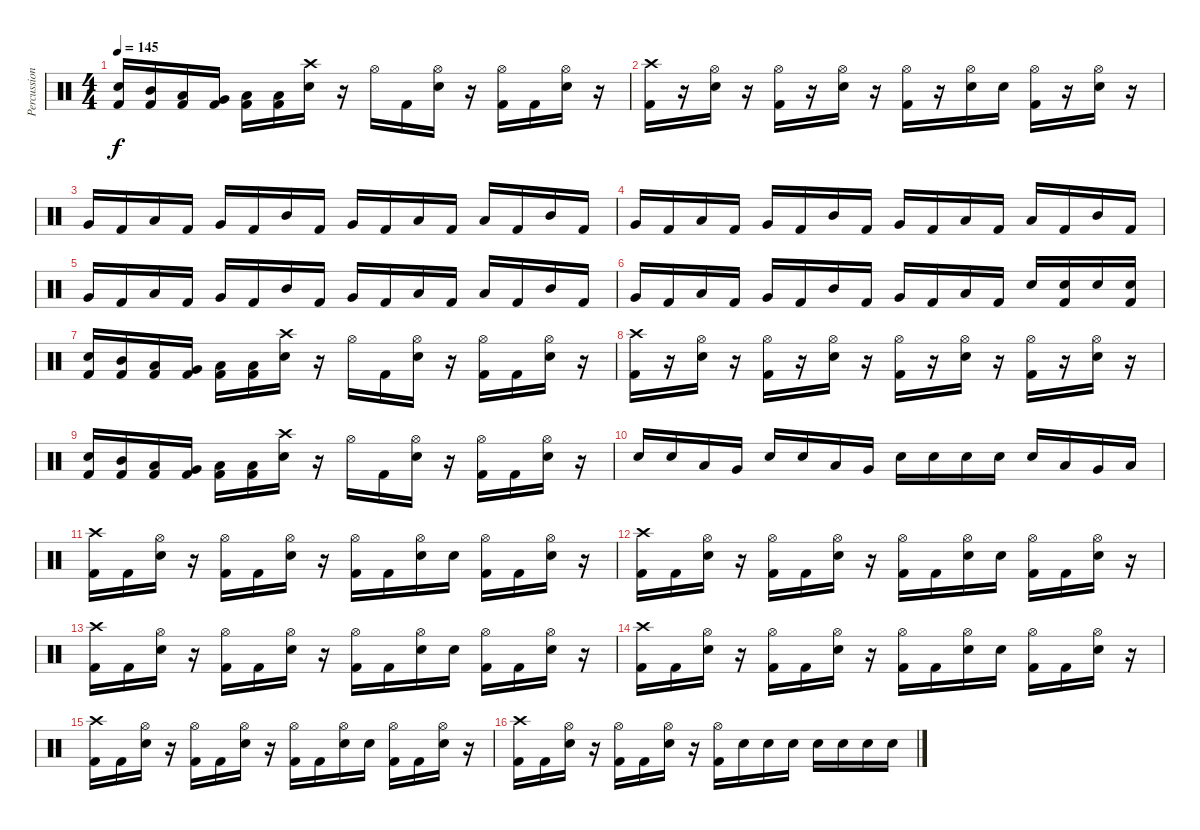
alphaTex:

\track ("Percussion - pinch" "Percussion") {instrument percussion}
\staff
\articulation defaults
\ts (4 4)
\tempo 145
\clef neutral
\ks c
("Electric Snare (hit)" "Kick (hit) 2").16{dy f} ("Mid Tom (hit)" "Kick (hit) 2").16 ("Low Tom (hit)" "Kick (hit) 2").16 ("Very Low Tom (hit)" "Kick (hit) 2").16 ("Low Floor Tom (hit)" "Kick (hit) 2").16 ("Low Floor Tom (hit)" "Kick (hit) 2").16 ("Crash high (hit)" "Electric Snare (hit)").16 r.16 "Hi-Hat (open)".16 "Kick (hit) 2".16 ("Hi-Hat (open)" "Electric Snare (hit)").16 r.16 ("Hi-Hat (open)" "Kick (hit) 2").16 "Kick (hit) 2".16 ("Hi-Hat (open)" "Electric Snare (hit)").16 r.16 |
("Crash high (hit)" "Kick (hit) 2").16 r.16 ("Hi-Hat (open)" "Electric Snare (hit)").16 r.16 ("Hi-Hat (open)" "Kick (hit) 2").16 r.16 ("Hi-Hat (open)" "Electric Snare (hit)").16 r.16 ("Hi-Hat (open)" "Kick (hit) 2").16 r.16 ("Hi-Hat (open)" "Electric Snare (hit)").16 "Electric Snare (hit)".16 ("Hi-Hat (open)" "Kick (hit) 2").16 r.16 ("Hi-Hat (open)" "Electric Snare (hit)").16 r.16 |
"Very Low Tom (hit)".16 "Kick (hit) 2".16 "Low Tom (hit)".16 "Kick (hit) 2".16 "Very Low Tom (hit)".16 "Kick (hit) 2".16 "Mid Tom (hit)".16 "Kick (hit) 2".16 "Very Low Tom (hit)".16 "Kick (hit) 2".16 "Low Tom (hit)".16 "Kick (hit) 2".16 "Low Floor Tom (hit)".16 "Kick (hit) 2".16 "Mid Tom (hit)".16 "Kick (hit) 2".16 |
"Very Low Tom (hit)".16 "Kick (hit) 2".16 "Low Tom (hit)".16 "Kick (hit) 2".16 "Very Low Tom (hit)".16 "Kick (hit) 2".16 "Mid Tom (hit)".16 "Kick (hit) 2".16 "Very Low Tom (hit)".16 "Kick (hit) 2".16 "Low Tom (hit)".16 "Kick (hit) 2".16 "Low Floor Tom (hit)".16 "Kick (hit) 2".16 "Mid Tom (hit)".16 "Kick (hit) 2".16 |
"Very Low Tom (hit)".16 "Kick (hit) 2".16 "Low Tom (hit)".16 "Kick (hit) 2".16 "Very Low Tom (hit)".16 "Kick (hit) 2".16 "Mid Tom (hit)".16 "Kick (hit) 2".16 "Very Low Tom (hit)".16 "Kick (hit) 2".16 "Low Tom (hit)".16 "Kick (hit) 2".16 "Low Floor Tom (hit)".16 "Kick (hit) 2".16 "Mid Tom (hit)".16 "Kick (hit) 2".16 |
"Very Low Tom (hit)".16 "Kick (hit) 2".16 "Low Tom (hit)".16 "Kick (hit) 2".16 "Very Low Tom (hit)".16 "Kick (hit) 2".16 "Mid Tom (hit)".16 "Kick (hit) 2".16 "Very Low Tom (hit)".16 "Kick (hit) 2".16 "Low Tom (hit)".16 "Kick (hit) 2".16 "Electric Snare (hit)".16 ("Electric Snare (hit)" "Kick (hit) 2").16 "Electric Snare (hit)".16 ("Electric Snare (hit)" "Kick (hit) 2").16 |
("Electric Snare (hit)" "Kick (hit) 2").16 ("Mid Tom (hit)" "Kick (hit) 2").16 ("Low Tom (hit)" "Kick (hit) 2").16 ("Very Low Tom (hit)" "Kick (hit) 2").16 ("Low Floor Tom (hit)" "Kick (hit) 2").16 ("Low Floor Tom (hit)" "Kick (hit) 2").16 ("Crash high (hit)" "Electric Snare (hit)").16 r.16 "Hi-Hat (open)".16 "Kick (hit) 2".16 ("Hi-Hat (open)" "Electric Snare (hit)").16 r.16 ("Hi-Hat (open)" "Kick (hit) 2").16 "Kick (hit) 2".16 ("Hi-Hat (open)" "Electric Snare (hit)").16 r.16 |
("Crash high (hit)" "Kick (hit) 2").16 r.16 ("Hi-Hat (open)" "Electric Snare (hit)").16 r.16 ("Hi-Hat (open)" "Kick (hit) 2").16 r.16 ("Hi-Hat (open)" "Electric Snare (hit)").16 r.16 ("Hi-Hat (open)" "Kick (hit) 2").16 r.16 ("Hi-Hat (open)" "Electric Snare (hit)").16 r.16 ("Hi-Hat (open)" "Kick (hit) 2").16 r.16 ("Hi-Hat (open)" "Electric Snare (hit)").16 r.16 |
("Electric Snare (hit)" "Kick (hit) 2").16 ("Mid Tom (hit)" "Kick (hit) 2").16 ("Low Tom (hit)" "Kick (hit) 2").16 ("Very Low Tom (hit)" "Kick (hit) 2").16 ("Low Floor Tom (hit)" "Kick (hit) 2").16 ("Low Floor Tom (hit)" "Kick (hit) 2").16 ("Crash high (hit)" "Electric Snare (hit)").16 r.16 "Hi-Hat (open)".16 "Kick (hit) 2".16 ("Hi-Hat (open)" "Electric Snare (hit)").16 r.16 ("Hi-Hat (open)" "Kick (hit) 2").16 "Kick (hit) 2".16 ("Hi-Hat (open)" "Electric Snare (hit)").16 r.16 |
"Electric Snare (hit)".16 "Electric Snare (hit)".16 "Low Tom (hit)".16 "Very Low Tom (hit)".16 "Electric Snare (hit)".16 "Electric Snare (hit)".16 "Low Tom (hit)".16 "Very Low Tom (hit)".16 "Electric Snare (hit)".16 "Electric Snare (hit)".16 "Electric Snare (hit)".16 "Electric Snare (hit)".16 "Electric Snare (hit)".16 "Low Tom (hit)".16 "Very Low Tom (hit)".16 "Low Floor Tom (hit)".16 |
("Crash high (hit)" "Kick (hit) 2").16 "Kick (hit) 2".16 ("Hi-Hat (open)" "Electric Snare (hit)").16 r.16 ("Hi-Hat (open)" "Kick (hit) 2").16 "Kick (hit) 2".16 ("Hi-Hat (open)" "Electric Snare (hit)").16 r.16 ("Hi-Hat (open)" "Kick (hit) 2").16 "Kick (hit) 2".16 ("Hi-Hat (open)" "Electric Snare (hit)").16 "Electric Snare (hit)".16 ("Hi-Hat (open)" "Kick (hit) 2").16 "Kick (hit) 2".16 ("Hi-Hat (open)" "Electric Snare (hit)").16 r.16 |
("Crash high (hit)" "Kick (hit) 2").16 "Kick (hit) 2".16 ("Hi-Hat (open)" "Electric Snare (hit)").16 r.16 ("Hi-Hat (open)" "Kick (hit) 2").16 "Kick (hit) 2".16 ("Hi-Hat (open)" "Electric Snare (hit)").16 r.16 ("Hi-Hat (open)" "Kick (hit) 2").16 "Kick (hit) 2".16 ("Hi-Hat (open)" "Electric Snare (hit)").16 "Electric Snare (hit)".16 ("Hi-Hat (open)" "Kick (hit) 2").16 "Kick (hit) 2".16 ("Hi-Hat (open)" "Electric Snare (hit)").16 r.16 |
("Crash high (hit)" "Kick (hit) 2").16 "Kick (hit) 2".16 ("Hi-Hat (open)" "Electric Snare (hit)").16 r.16 ("Hi-Hat (open)" "Kick (hit) 2").16 "Kick (hit) 2".16 ("Hi-Hat (open)" "Electric Snare (hit)").16 r.16 ("Hi-Hat (open)" "Kick (hit) 2").16 "Kick (hit) 2".16 ("Hi-Hat (open)" "Electric Snare (hit)").16 "Electric Snare (hit)".16 ("Hi-Hat (open)" "Kick (hit) 2").16 "Kick (hit) 2".16 ("Hi-Hat (open)" "Electric Snare (hit)").16 r.16 |
("Crash high (hit)" "Kick (hit) 2").16 "Kick (hit) 2".16 ("Hi-Hat (open)" "Electric Snare (hit)").16 r.16 ("Hi-Hat (open)" "Kick (hit) 2").16 "Kick (hit) 2".16 ("Hi-Hat (open)" "Electric Snare (hit)").16 r.16 ("Hi-Hat (open)" "Kick (hit) 2").16 "Kick (hit) 2".16 ("Hi-Hat (open)" "Electric Snare (hit)").16 "Electric Snare (hit)".16 ("Hi-Hat (open)" "Kick (hit) 2").16 "Kick (hit) 2".16 ("Hi-Hat (open)" "Electric Snare (hit)").16 r.16 |
("Crash high (hit)" "Kick (hit) 2").16 "Kick (hit) 2".16 ("Hi-Hat (open)" "Electric Snare (hit)").16 r.16 ("Hi-Hat (open)" "Kick (hit) 2").16 "Kick (hit) 2".16 ("Hi-Hat (open)" "Electric Snare (hit)").16 r.16 ("Hi-Hat (open)" "Kick (hit) 2").16 "Kick (hit) 2".16 ("Hi-Hat (open)" "Electric Snare (hit)").16 "Electric Snare (hit)".16 ("Hi-Hat (open)" "Kick (hit) 2").16 "Kick (hit) 2".16 ("Hi-Hat (open)" "Electric Snare (hit)").16 r.16 |
("Crash high (hit)" "Kick (hit) 2").16 "Kick (hit) 2".16 ("Hi-Hat (open)" "Electric Snare (hit)").16 r.16 ("Hi-Hat (open)" "Kick (hit) 2").16 "Kick (hit) 2".16 ("Hi-Hat (open)" "Electric Snare (hit)").16 r.16 ("Hi-Hat (open)" "Kick (hit) 2").16 "Electric Snare (hit)".16 "Electric Snare (hit)".16 "Electric Snare (hit)".16 "Electric Snare (hit)".16 "Electric Snare (hit)".16 "Electric Snare (hit)".16 "Electric Snare (hit)".16
